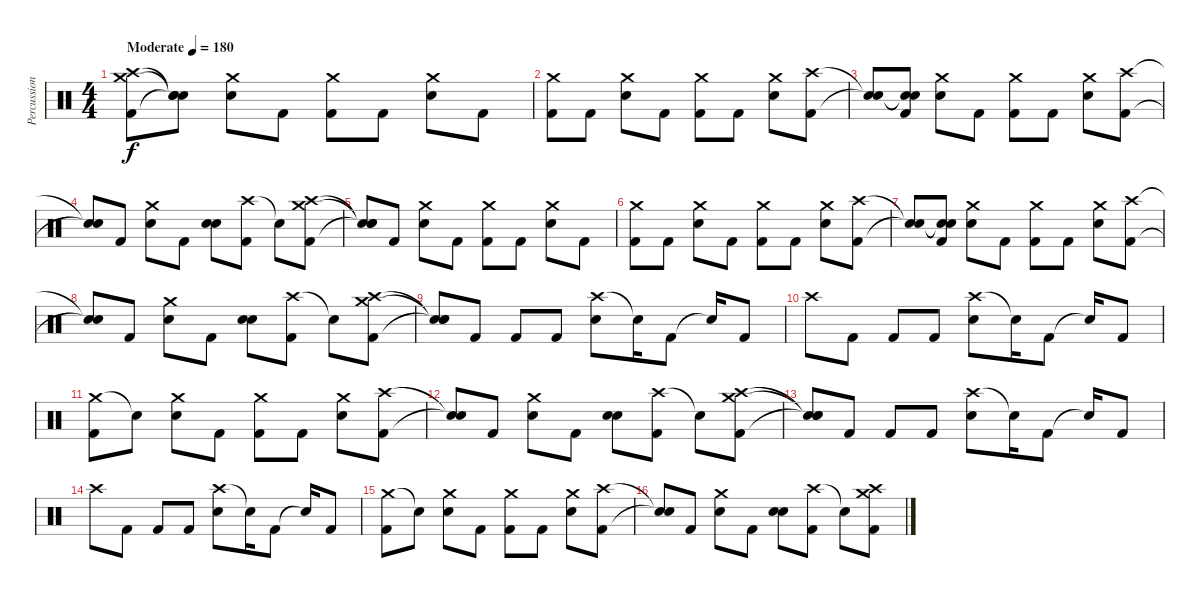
\track ("Percussion" "Percussion") {instrument percussion}
\staff {score}
\articulation defaults
\ts (4 4)
\tempo (180 "Moderate")
\clef neutral
\ks c
("Crash high (hit)" "Crash medium (hit)" "Kick (hit) 2").8{dy f} ("Snare (hit)"{t} "Snare (hit)"{t} "Snare (hit)"{t}).8 ("Crash medium (hit)" "Snare (hit) 2").8 "Kick (hit) 2".8 ("Crash medium (hit)" "Kick (hit) 2").8 "Kick (hit) 2".8 ("Crash medium (hit)" "Snare (hit) 2").8 "Kick (hit) 2".8 |
("Crash medium (hit)" "Kick (hit) 2").8 "Kick (hit) 2".8 ("Crash medium (hit)" "Snare (hit) 2").8 "Kick (hit) 2".8 ("Crash medium (hit)" "Kick (hit) 2").8 "Kick (hit) 2".8 ("Crash medium (hit)" "Snare (hit) 2").8 ("Crash high (hit)" "Kick (hit) 2").8 |
("Snare (hit)"{t} "Snare (hit)"{t}).8 ("Snare (hit)"{t} "Snare (hit)"{t} "Kick (hit) 2").8 ("Crash medium (hit)" "Snare (hit) 2").8 "Kick (hit) 2".8 ("Crash medium (hit)" "Kick (hit) 2").8 "Kick (hit) 2".8 ("Crash medium (hit)" "Snare (hit) 2").8 ("Crash high (hit)" "Kick (hit) 2").8 |
("Snare (hit)"{t} "Snare (hit)"{t}).8 "Kick (hit) 2".8 ("Crash medium (hit)" "Snare (hit) 2").8 "Kick (hit) 2".8 ("Snare (hit) 2" "Snare (hit) 2").8 ("Crash high (hit)" "Kick (hit) 2").8 "Snare (hit)"{t}.8 ("Crash high (hit)" "Crash medium (hit)" "Kick (hit) 2").8 |
("Snare (hit)"{t} "Snare (hit)"{t} "Snare (hit)"{t}).8 "Kick (hit) 2".8 ("Crash medium (hit)" "Snare (hit) 2").8 "Kick (hit) 2".8 ("Crash medium (hit)" "Kick (hit) 2").8 "Kick (hit) 2".8 ("Crash medium (hit)" "Snare (hit) 2").8 "Kick (hit) 2".8 |
("Crash medium (hit)" "Kick (hit) 2").8 "Kick (hit) 2".8 ("Crash medium (hit)" "Snare (hit) 2").8 "Kick (hit) 2".8 ("Crash medium (hit)" "Kick (hit) 2").8 "Kick (hit) 2".8 ("Crash medium (hit)" "Snare (hit) 2").8 ("Crash high (hit)" "Kick (hit) 2").8 |
("Snare (hit)"{t} "Snare (hit)"{t}).8 ("Snare (hit)"{t} "Snare (hit)"{t} "Kick (hit) 2").8 ("Crash medium (hit)" "Snare (hit) 2").8 "Kick (hit) 2".8 ("Crash medium (hit)" "Kick (hit) 2").8 "Kick (hit) 2".8 ("Crash medium (hit)" "Snare (hit) 2").8 ("Crash high (hit)" "Kick (hit) 2").8 |
("Snare (hit)"{t} "Snare (hit)"{t}).8 "Kick (hit) 2".8 ("Crash medium (hit)" "Snare (hit) 2").8 "Kick (hit) 2".8 ("Snare (hit) 2" "Snare (hit) 2").8 ("Crash high (hit)" "Kick (hit) 2").8 "Snare (hit)"{t}.8 ("Crash high (hit)" "Crash medium (hit)" "Kick (hit) 2").8 |
("Snare (hit)"{t} "Snare (hit)"{t} "Snare (hit)"{t}).8 "Kick (hit) 2".8 "Kick (hit) 2".8 "Kick (hit) 2".8 ("Crash high (hit)" "Snare (hit) 2").8 "Snare (hit)"{t}.16 "Kick (hit) 2".8 "Snare (hit)"{t}.16 "Kick (hit) 2".8 |
"Crash high (hit)".8 "Kick (hit) 2".8 "Kick (hit) 2".8 "Kick (hit) 2".8 ("Crash high (hit)" "Snare (hit) 2").8 "Snare (hit)"{t}.16 "Kick (hit) 2".8 "Snare (hit)"{t}.16 "Kick (hit) 2".8 |
("Crash medium (hit)" "Kick (hit) 2").8 "Snare (hit)"{t}.8 ("Crash medium (hit)" "Snare (hit) 2").8 "Kick (hit) 2".8 ("Crash medium (hit)" "Kick (hit) 2").8 "Kick (hit) 2".8 ("Crash medium (hit)" "Snare (hit) 2").8 ("Crash high (hit)" "Kick (hit) 2").8 |
("Snare (hit)"{t} "Snare (hit)"{t}).8 "Kick (hit) 2".8 ("Crash medium (hit)" "Snare (hit) 2").8 "Kick (hit) 2".8 ("Snare (hit) 2" "Snare (hit) 2").8 ("Crash high (hit)" "Kick (hit) 2").8 "Snare (hit)"{t}.8 ("Crash high (hit)" "Crash medium (hit)" "Kick (hit) 2").8 |
("Snare (hit)"{t} "Snare (hit)"{t} "Snare (hit)"{t}).8 "Kick (hit) 2".8 "Kick (hit) 2".8 "Kick (hit) 2".8 ("Crash high (hit)" "Snare (hit) 2").8 "Snare (hit)"{t}.16 "Kick (hit) 2".8 "Snare (hit)"{t}.16 "Kick (hit) 2".8 |
"Crash high (hit)".8 "Kick (hit) 2".8 "Kick (hit) 2".8 "Kick (hit) 2".8 ("Crash high (hit)" "Snare (hit) 2").8 "Snare (hit)"{t}.16 "Kick (hit) 2".8 "Snare (hit)"{t}.16 "Kick (hit) 2".8 |
("Crash medium (hit)" "Kick (hit) 2").8 "Snare (hit)"{t}.8 ("Crash medium (hit)" "Snare (hit) 2").8 "Kick (hit) 2".8 ("Crash medium (hit)" "Kick (hit) 2").8 "Kick (hit) 2".8 ("Crash medium (hit)" "Snare (hit) 2").8 ("Crash high (hit)" "Kick (hit) 2").8 |
("Snare (hit)"{t} "Snare (hit)"{t}).8 "Kick (hit) 2".8 ("Crash medium (hit)" "Snare (hit) 2").8 "Kick (hit) 2".8 ("Snare (hit) 2" "Snare (hit) 2").8 ("Crash high (hit)" "Kick (hit) 2").8 "Snare (hit)"{t}.8 ("Crash high (hit)" "Crash medium (hit)" "Kick (hit) 2").8
